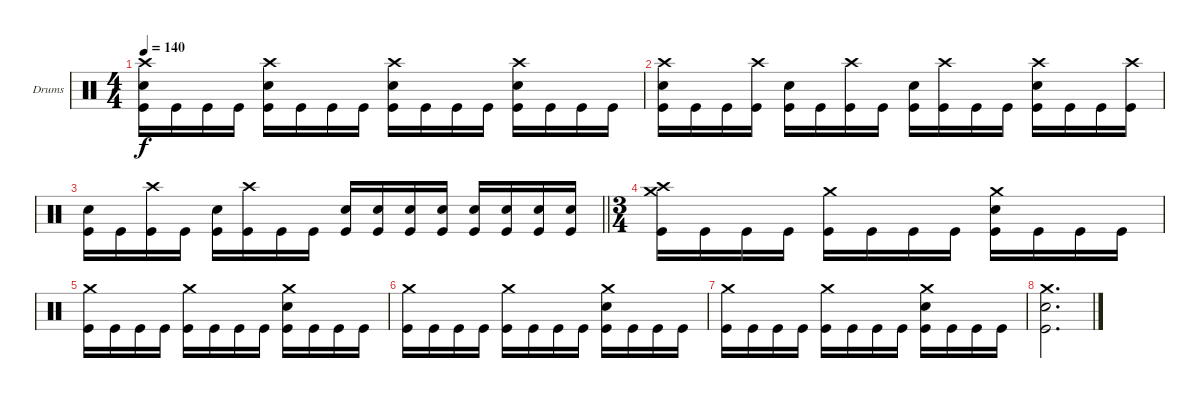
\bracketExtendMode groupsimilarinstruments
\firstSystemTrackNameOrientation horizontal
\otherSystemsTrackNameOrientation horizontal
\track ("Drumkit" "Drums") {instrument percussion}
\staff {score}
\articulation defaults
\ts (4 4)
\tempo 140
\clef neutral
\ks c
("Crash high (hit)" "Snare (hit) 2" "Kick (hit)").16{dy f} "Kick (hit)".16 "Kick (hit)".16 "Kick (hit)".16 ("Crash high (hit)" "Snare (hit) 2" "Kick (hit)").16 "Kick (hit)".16 "Kick (hit)".16 "Kick (hit)".16 ("Crash high (hit)" "Snare (hit) 2" "Kick (hit)").16 "Kick (hit)".16 "Kick (hit)".16 "Kick (hit)".16 ("Crash high (hit)" "Snare (hit) 2" "Kick (hit)").16 "Kick (hit)".16 "Kick (hit)".16 "Kick (hit)".16 |
("Crash high (hit)" "Snare (hit) 2" "Kick (hit)").16 "Kick (hit)".16 "Kick (hit)".16 ("Crash high (hit)" "Kick (hit)").16 ("Snare (hit) 2" "Kick (hit)").16 "Kick (hit)".16 ("Crash high (hit)" "Kick (hit)").16 "Kick (hit)".16 ("Snare (hit) 2" "Kick (hit)").16 ("Crash high (hit)" "Kick (hit)").16 "Kick (hit)".16 "Kick (hit)".16 ("Crash high (hit)" "Snare (hit) 2" "Kick (hit)").16 "Kick (hit)".16 "Kick (hit)".16 ("Crash high (hit)" "Kick (hit)").16 |
\barLineRight lightlight
("Snare (hit) 2" "Kick (hit)").16 "Kick (hit)".16 ("Crash high (hit)" "Kick (hit)").16 "Kick (hit)".16 ("Snare (hit) 2" "Kick (hit)").16 ("Crash high (hit)" "Kick (hit)").16 "Kick (hit)".16 "Kick (hit)".16 ("Snare (hit) 2" "Kick (hit)").16 ("Snare (hit) 2" "Kick (hit)").16 ("Snare (hit) 2" "Kick (hit)").16 ("Snare (hit) 2" "Kick (hit)").16 ("Snare (hit) 2" "Kick (hit)").16 ("Snare (hit) 2" "Kick (hit)").16 ("Snare (hit) 2" "Kick (hit)").16 ("Snare (hit) 2" "Kick (hit)").16 |
\ts (3 4)
\beaming (8 2 2 2 2)
("Crash high (hit)" "Crash medium (hit)" "Kick (hit)").16 "Kick (hit)".16 "Kick (hit)".16 "Kick (hit)".16 ("Crash medium (hit)" "Kick (hit)").16 "Kick (hit)".16 "Kick (hit)".16 "Kick (hit)".16 ("Crash medium (hit)" "Snare (hit) 2" "Kick (hit)").16 "Kick (hit)".16 "Kick (hit)".16 "Kick (hit)".16 |
("Crash medium (hit)" "Kick (hit)").16 "Kick (hit)".16 "Kick (hit)".16 "Kick (hit)".16 ("Crash medium (hit)" "Kick (hit)").16 "Kick (hit)".16 "Kick (hit)".16 "Kick (hit)".16 ("Crash medium (hit)" "Snare (hit) 2" "Kick (hit)").16 "Kick (hit)".16 "Kick (hit)".16 "Kick (hit)".16 |
("Crash medium (hit)" "Kick (hit)").16 "Kick (hit)".16 "Kick (hit)".16 "Kick (hit)".16 ("Crash medium (hit)" "Kick (hit)").16 "Kick (hit)".16 "Kick (hit)".16 "Kick (hit)".16 ("Crash medium (hit)" "Snare (hit) 2" "Kick (hit)").16 "Kick (hit)".16 "Kick (hit)".16 "Kick (hit)".16 |
("Crash medium (hit)" "Kick (hit)").16 "Kick (hit)".16 "Kick (hit)".16 "Kick (hit)".16 ("Crash medium (hit)" "Kick (hit)").16 "Kick (hit)".16 "Kick (hit)".16 "Kick (hit)".16 ("Crash medium (hit)" "Snare (hit) 2" "Kick (hit)").16 "Kick (hit)".16 "Kick (hit)".16 "Kick (hit)".16 |
("Crash medium (hit)" "Snare (hit) 2" "Kick (hit)").2{d}
